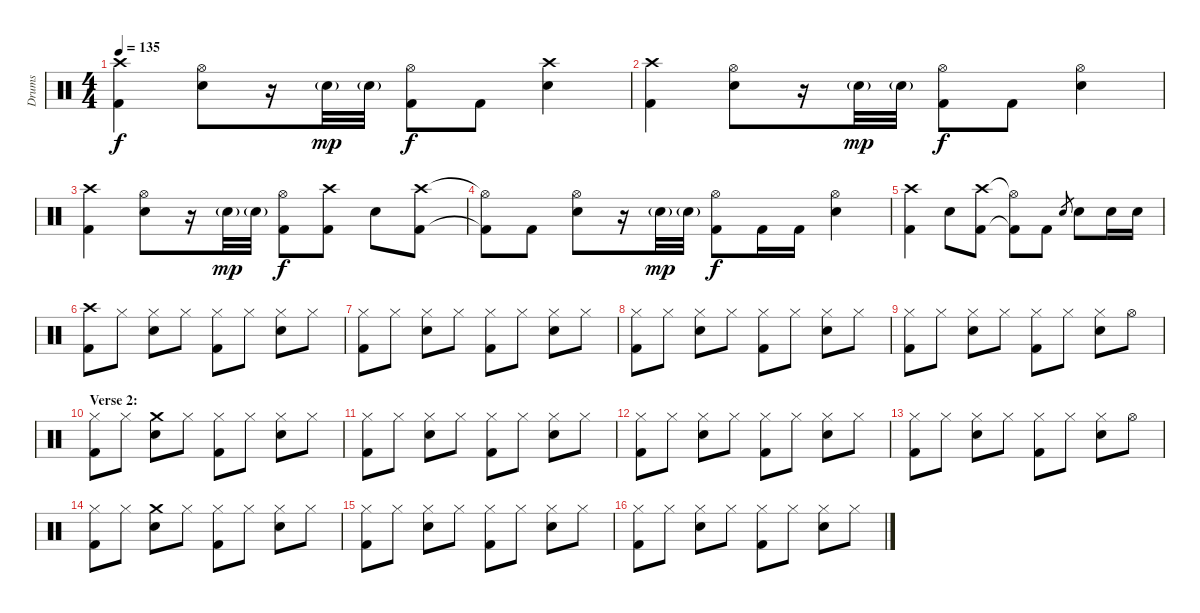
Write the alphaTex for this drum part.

\track ("Drums" "Drums") {instrument percussion}
\staff {score}
\articulation defaults
\ts (4 4)
\tempo 135
\clef neutral
\ks c
("Crash high (hit)" "Kick (hit) 2").4{dy f} ("Hi-Hat (open)" "Snare (hit) 2").8 r.16 "Snare (hit) 2"{g}.32{dy mp} "Snare (hit) 2"{g}.32 ("Hi-Hat (open)" "Kick (hit) 2").8{dy f} "Kick (hit) 2".8 ("Crash high (hit)" "Snare (hit) 2").4 |
("Crash high (hit)" "Kick (hit) 2").4 ("Hi-Hat (open)" "Snare (hit) 2").8 r.16 "Snare (hit) 2"{g}.32{dy mp} "Snare (hit) 2"{g}.32 ("Hi-Hat (open)" "Kick (hit) 2").8{dy f} "Kick (hit) 2".8 ("Hi-Hat (open)" "Snare (hit) 2").4 |
("Crash high (hit)" "Kick (hit) 2").4 ("Hi-Hat (open)" "Snare (hit) 2").8 r.16 "Snare (hit) 2"{g}.32{dy mp} "Snare (hit) 2"{g}.32 ("Hi-Hat (open)" "Kick (hit) 2").8{dy f} ("Crash high (hit)" "Kick (hit) 2").8 "Snare (hit) 2".8 ("Crash high (hit)" "Kick (hit) 2").8 |
("Hi-Hat (open)"{t} "Kick (hit) 2"{t}).8 "Kick (hit) 2".8 ("Hi-Hat (open)" "Snare (hit) 2").8 r.16 "Snare (hit) 2"{g}.32{dy mp} "Snare (hit) 2"{g}.32 ("Hi-Hat (open)" "Kick (hit) 2").8{dy f} "Kick (hit) 2".16 "Kick (hit) 2".16 ("Hi-Hat (open)" "Snare (hit) 2").4 |
("Crash high (hit)" "Kick (hit) 2").4 "Snare (hit) 2".8 ("Crash high (hit)" "Kick (hit) 2").8 ("Hi-Hat (open)"{t} "Kick (hit) 2"{t}).8 "Kick (hit) 2".8 "Snare (hit) 2".8{gr} "Snare (hit) 2".8 "Snare (hit) 2".16 "Snare (hit) 2".16 |
("Crash high (hit)" "Kick (hit) 2").8 "Hi-Hat (closed)".8 ("Hi-Hat (closed)" "Snare (hit) 2").8 "Hi-Hat (closed)".8 ("Hi-Hat (closed)" "Kick (hit) 2").8 "Hi-Hat (closed)".8 ("Hi-Hat (closed)" "Snare (hit) 2").8 "Hi-Hat (closed)".8 |
("Hi-Hat (closed)" "Kick (hit) 2").8 "Hi-Hat (closed)".8 ("Hi-Hat (closed)" "Snare (hit) 2").8 "Hi-Hat (closed)".8 ("Hi-Hat (closed)" "Kick (hit) 2").8 "Hi-Hat (closed)".8 ("Hi-Hat (closed)" "Snare (hit) 2").8 "Hi-Hat (closed)".8 |
("Hi-Hat (closed)" "Kick (hit) 2").8 "Hi-Hat (closed)".8 ("Hi-Hat (closed)" "Snare (hit) 2").8 "Hi-Hat (closed)".8 ("Hi-Hat (closed)" "Kick (hit) 2").8 "Hi-Hat (closed)".8 ("Hi-Hat (closed)" "Snare (hit) 2").8 "Hi-Hat (closed)".8 |
("Hi-Hat (closed)" "Kick (hit) 2").8 "Hi-Hat (closed)".8 ("Hi-Hat (closed)" "Snare (hit) 2").8 "Hi-Hat (closed)".8 ("Hi-Hat (closed)" "Kick (hit) 2").8 "Hi-Hat (closed)".8 ("Hi-Hat (closed)" "Snare (hit) 2").8 "Hi-Hat (open)".8 |
\section ("" "Verse 2:")
("Hi-Hat (closed)" "Kick (hit) 2").8 "Hi-Hat (closed)".8 ("Crash medium (hit)" "Snare (hit) 2").8 "Hi-Hat (closed)".8 ("Hi-Hat (closed)" "Kick (hit) 2").8 "Hi-Hat (closed)".8 ("Hi-Hat (closed)" "Snare (hit) 2").8 "Hi-Hat (closed)".8 |
("Hi-Hat (closed)" "Kick (hit) 2").8 "Hi-Hat (closed)".8 ("Hi-Hat (closed)" "Snare (hit) 2").8 "Hi-Hat (closed)".8 ("Hi-Hat (closed)" "Kick (hit) 2").8 "Hi-Hat (closed)".8 ("Hi-Hat (closed)" "Snare (hit) 2").8 "Hi-Hat (closed)".8 |
("Hi-Hat (closed)" "Kick (hit) 2").8 "Hi-Hat (closed)".8 ("Hi-Hat (closed)" "Snare (hit) 2").8 "Hi-Hat (closed)".8 ("Hi-Hat (closed)" "Kick (hit) 2").8 "Hi-Hat (closed)".8 ("Hi-Hat (closed)" "Snare (hit) 2").8 "Hi-Hat (closed)".8 |
("Hi-Hat (closed)" "Kick (hit) 2").8 "Hi-Hat (closed)".8 ("Hi-Hat (closed)" "Snare (hit) 2").8 "Hi-Hat (closed)".8 ("Hi-Hat (closed)" "Kick (hit) 2").8 "Hi-Hat (closed)".8 ("Hi-Hat (closed)" "Snare (hit) 2").8 "Hi-Hat (open)".8 |
("Hi-Hat (closed)" "Kick (hit) 2").8 "Hi-Hat (closed)".8 ("Crash medium (hit)" "Snare (hit) 2").8 "Hi-Hat (closed)".8 ("Hi-Hat (closed)" "Kick (hit) 2").8 "Hi-Hat (closed)".8 ("Hi-Hat (closed)" "Snare (hit) 2").8 "Hi-Hat (closed)".8 |
("Hi-Hat (closed)" "Kick (hit) 2").8 "Hi-Hat (closed)".8 ("Hi-Hat (closed)" "Snare (hit) 2").8 "Hi-Hat (closed)".8 ("Hi-Hat (closed)" "Kick (hit) 2").8 "Hi-Hat (closed)".8 ("Hi-Hat (closed)" "Snare (hit) 2").8 "Hi-Hat (closed)".8 |
("Hi-Hat (closed)" "Kick (hit) 2").8 "Hi-Hat (closed)".8 ("Hi-Hat (closed)" "Snare (hit) 2").8 "Hi-Hat (closed)".8 ("Hi-Hat (closed)" "Kick (hit) 2").8 "Hi-Hat (closed)".8 ("Hi-Hat (closed)" "Snare (hit) 2").8 "Hi-Hat (closed)".8
